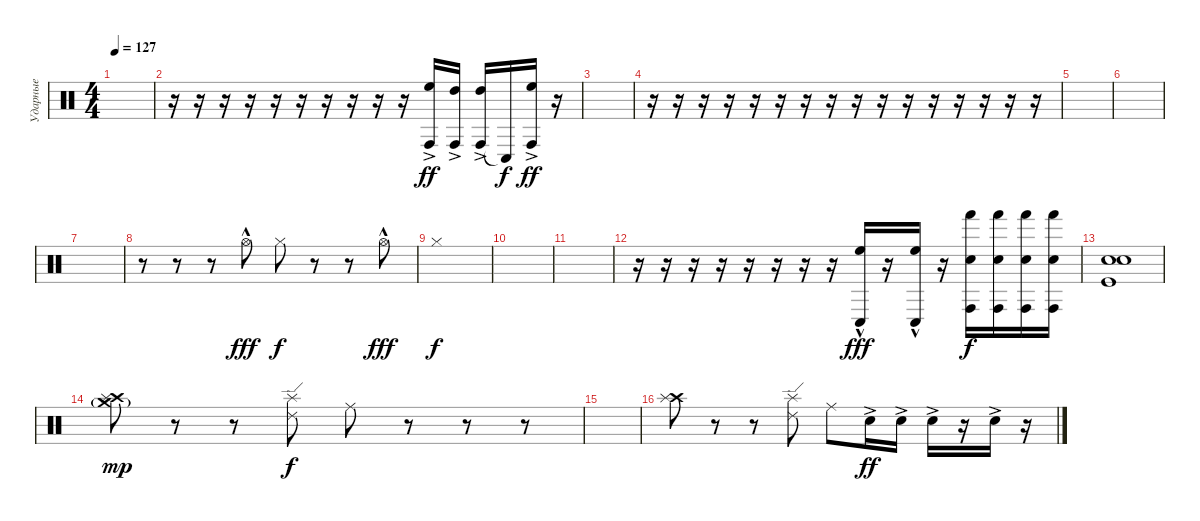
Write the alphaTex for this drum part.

\track ("Ударные" "Ударные") {instrument percussion}
\staff {score}
\articulation defaults
\ts (4 4)
\tempo 127
\clef neutral
\ks c
|
r.16 r.16 r.16 r.16 r.16 r.16 r.16 r.16 r.16 r.16 ("Conga high (hit)"{ac} "High Floor Tom (hit)").16{dy ff} ("Conga high (hit)"{ac} "High Tom (hit)").16 ("Conga high (hit)"{ac} "High Tom (hit)").16 "Conga low (hit)"{t}.16{dy f} ("Conga high (hit)"{ac} "High Floor Tom (hit)").16{dy ff} r.16 |
|
r.16 r.16 r.16 r.16 r.16 r.16 r.16 r.16 r.16 r.16 r.16 r.16 r.16 r.16 r.16 r.16 |
|
|
|
r.8 r.8 r.8 "Hi-Hat (open)"{hac}.8{dy fff} "Hi-Hat (closed)".8{dy f} r.8 r.8 "Hi-Hat (open)"{hac}.8{dy fff} |
"Hi-Hat (closed)".1{dy f} |
|
|
r.16 r.16 r.16 r.16 r.16 r.16 r.16 r.16 ("Conga low (hit)"{hac} "High Floor Tom (hit)"{hac}).16{dy fff} r.16 ("Conga low (hit)"{hac} "High Floor Tom (hit)"{hac}).16 r.16 ("Electric Snare (hit)" "Conga high (hit)" "Hand (hit)").16{dy f} ("Electric Snare (hit)" "Conga high (hit)" "Hand (hit)").16 ("Electric Snare (hit)" "Conga high (hit)" "Hand (hit)").16 ("Electric Snare (hit)" "Conga high (hit)" "Hand (hit)").16 |
("Electric Snare (hit)" "Snare (hit) 2" "Kick (hit)").1 |
("Crash medium (hit)"{g} "Crash high (hit)" "Splash (hit)").8{dy mp} r.8 r.8 ("Splash (hit)" "Ride (edge) 2").8{dy f} "Ride (middle)".8 r.8 r.8 r.8 |
|
("Crash high (hit)" "Splash (hit)").8 r.8 r.8 ("Splash (hit)" "Ride (edge) 2").8 "Ride (middle)".8 "Hand Clap (hit)"{ac}.16{dy ff} "Hand Clap (hit)"{ac}.16 "Hand Clap (hit)"{ac}.16 r.16 "Hand Clap (hit)"{ac}.16 r.16
